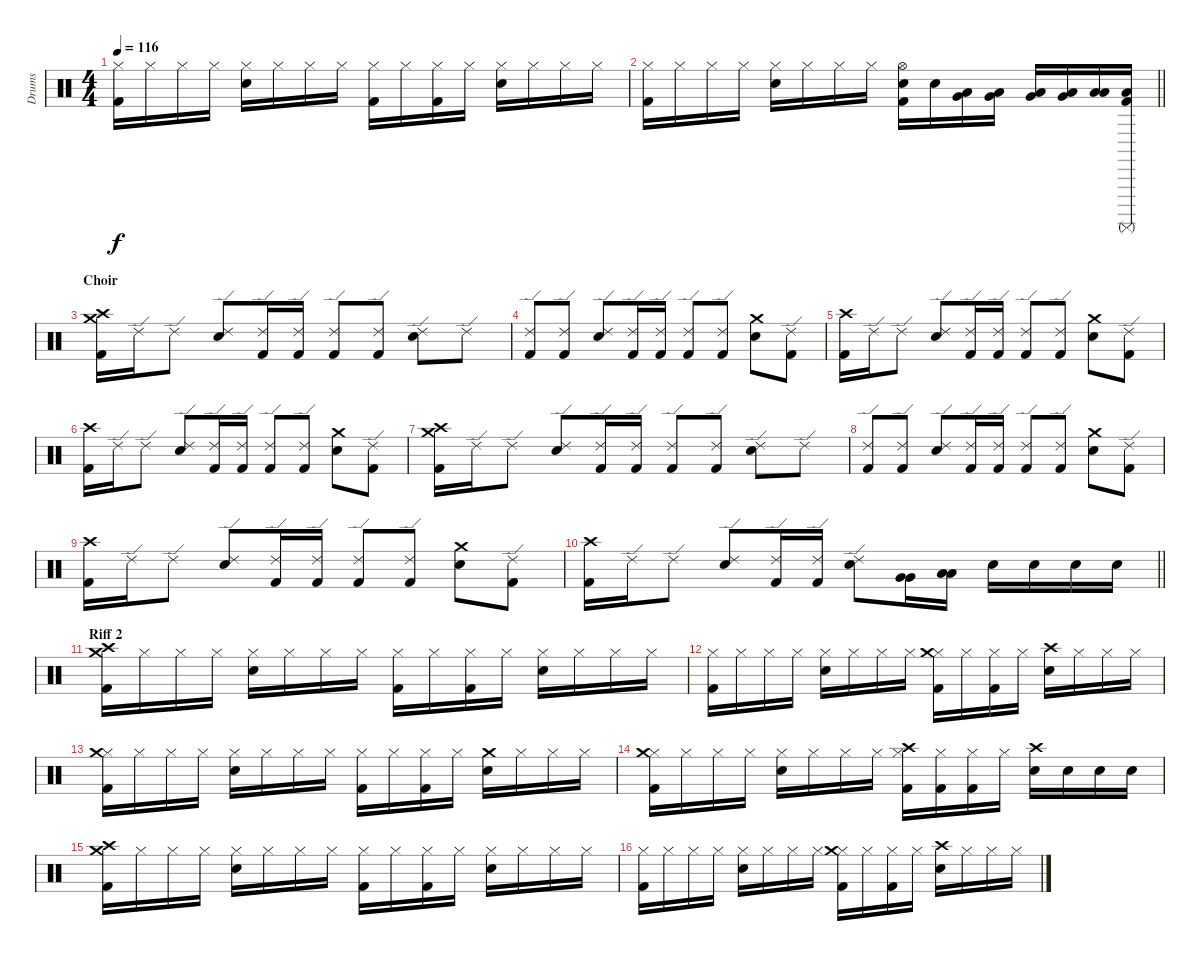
\track ("Drums" "Drums") {instrument percussion}
\staff {score}
\articulation defaults
\ts (4 4)
\tempo 116
\clef neutral
\ks c
("Hi-Hat (closed)" "Kick (hit) 2").16{dy f} "Hi-Hat (closed)".16 "Hi-Hat (closed)".16 "Hi-Hat (closed)".16 ("Hi-Hat (closed)" "Snare (hit) 2").16 "Hi-Hat (closed)".16 "Hi-Hat (closed)".16 "Hi-Hat (closed)".16 ("Hi-Hat (closed)" "Kick (hit) 2").16 "Hi-Hat (closed)".16 ("Hi-Hat (closed)" "Kick (hit) 2").16 "Hi-Hat (closed)".16 ("Hi-Hat (closed)" "Snare (hit) 2").16 "Hi-Hat (closed)".16 "Hi-Hat (closed)".16 "Hi-Hat (closed)".16 |
\barLineRight lightlight
("Hi-Hat (closed)" "Kick (hit) 2").16 "Hi-Hat (closed)".16 "Hi-Hat (closed)".16 "Hi-Hat (closed)".16 ("Hi-Hat (closed)" "Snare (hit) 2").16 "Hi-Hat (closed)".16 "Hi-Hat (closed)".16 "Hi-Hat (closed)".16 ("Hi-Hat (open)" "Kick (hit) 2" "Snare (hit) 2").16 "Snare (hit) 2".16 ("Very Low Tom (hit)" "Low Floor Tom (hit)").16 ("Very Low Tom (hit)" "Low Floor Tom (hit)").16 ("Low Tom (hit)" "Very Low Tom (hit)").16 ("Low Tom (hit)" "Very Low Tom (hit)").16 ("Low Tom (hit)" "Low Tom (hit)").16 ("Kick (hit) 2" "Low Tom (hit)" "Surdo (mute)").16 |
\section ("" "Choir")
("Kick (hit) 2" "Crash medium (hit)" "Crash high (hit)").16 "Ride (edge) 2".16 "Ride (edge) 2".8 ("Ride (edge) 2" "Snare (hit) 2").8 ("Ride (edge) 2" "Kick (hit) 2").16 ("Ride (edge) 2" "Kick (hit) 2").16 ("Ride (edge) 2" "Kick (hit) 2").8 ("Ride (edge) 2" "Kick (hit) 2").8 ("Ride (edge) 2" "Snare (hit) 2").8 "Ride (edge) 2".8 |
("Ride (edge) 2" "Kick (hit) 2").8 ("Ride (edge) 2" "Kick (hit) 2").8 ("Ride (edge) 2" "Snare (hit) 2").8 ("Ride (edge) 2" "Kick (hit) 2").16 ("Ride (edge) 2" "Kick (hit) 2").16 ("Ride (edge) 2" "Kick (hit) 2").8 ("Ride (edge) 2" "Kick (hit) 2").8 ("Snare (hit) 2" "Crash medium (hit)").8 ("Ride (edge) 2" "Kick (hit) 2").8 |
("Kick (hit) 2" "Crash high (hit)").16 "Ride (edge) 2".16 "Ride (edge) 2".8 ("Ride (edge) 2" "Snare (hit) 2").8 ("Ride (edge) 2" "Kick (hit) 2").16 ("Ride (edge) 2" "Kick (hit) 2").16 ("Ride (edge) 2" "Kick (hit) 2").8 ("Ride (edge) 2" "Kick (hit) 2").8 ("Snare (hit) 2" "Crash medium (hit)").8 ("Ride (edge) 2" "Kick (hit) 2").8 |
("Kick (hit) 2" "Crash high (hit)").16 "Ride (edge) 2".16 "Ride (edge) 2".8 ("Ride (edge) 2" "Snare (hit) 2").8 ("Ride (edge) 2" "Kick (hit) 2").16 ("Ride (edge) 2" "Kick (hit) 2").16 ("Ride (edge) 2" "Kick (hit) 2").8 ("Ride (edge) 2" "Kick (hit) 2").8 ("Snare (hit) 2" "Crash medium (hit)").8 ("Ride (edge) 2" "Kick (hit) 2").8 |
("Kick (hit) 2" "Crash medium (hit)" "Crash high (hit)").16 "Ride (edge) 2".16 "Ride (edge) 2".8 ("Ride (edge) 2" "Snare (hit) 2").8 ("Ride (edge) 2" "Kick (hit) 2").16 ("Ride (edge) 2" "Kick (hit) 2").16 ("Ride (edge) 2" "Kick (hit) 2").8 ("Ride (edge) 2" "Kick (hit) 2").8 ("Ride (edge) 2" "Snare (hit) 2").8 "Ride (edge) 2".8 |
("Ride (edge) 2" "Kick (hit) 2").8 ("Ride (edge) 2" "Kick (hit) 2").8 ("Ride (edge) 2" "Snare (hit) 2").8 ("Ride (edge) 2" "Kick (hit) 2").16 ("Ride (edge) 2" "Kick (hit) 2").16 ("Ride (edge) 2" "Kick (hit) 2").8 ("Ride (edge) 2" "Kick (hit) 2").8 ("Snare (hit) 2" "Crash medium (hit)").8 ("Ride (edge) 2" "Kick (hit) 2").8 |
("Kick (hit) 2" "Crash high (hit)").16 "Ride (edge) 2".16 "Ride (edge) 2".8 ("Ride (edge) 2" "Snare (hit) 2").8 ("Ride (edge) 2" "Kick (hit) 2").16 ("Ride (edge) 2" "Kick (hit) 2").16 ("Ride (edge) 2" "Kick (hit) 2").8 ("Ride (edge) 2" "Kick (hit) 2").8 ("Snare (hit) 2" "Crash medium (hit)").8 ("Ride (edge) 2" "Kick (hit) 2").8 |
\barLineRight lightlight
("Kick (hit) 2" "Crash high (hit)").16 "Ride (edge) 2".16 "Ride (edge) 2".8 ("Ride (edge) 2" "Snare (hit) 2").8 ("Ride (edge) 2" "Kick (hit) 2").16 ("Ride (edge) 2" "Kick (hit) 2").16 ("Ride (edge) 2" "Snare (hit) 2").8 ("Very Low Tom (hit)" "Very Low Tom (hit)").16 ("Low Tom (hit)" "Low Tom (hit)").16 "Snare (hit) 2".16 "Snare (hit) 2".16 "Snare (hit) 2".16 "Snare (hit) 2".16 |
\section ("" "Riff 2")
("Kick (hit) 2" "Crash medium (hit)" "Crash high (hit)").16 "Hi-Hat (closed)".16 "Hi-Hat (closed)".16 "Hi-Hat (closed)".16 ("Hi-Hat (closed)" "Snare (hit) 2").16 "Hi-Hat (closed)".16 "Hi-Hat (closed)".16 "Hi-Hat (closed)".16 ("Hi-Hat (closed)" "Kick (hit) 2").16 "Hi-Hat (closed)".16 ("Hi-Hat (closed)" "Kick (hit) 2").16 "Hi-Hat (closed)".16 ("Hi-Hat (closed)" "Snare (hit) 2").16 "Hi-Hat (closed)".16 "Hi-Hat (closed)".16 "Hi-Hat (closed)".16 |
("Hi-Hat (closed)" "Kick (hit) 2").16 "Hi-Hat (closed)".16 "Hi-Hat (closed)".16 "Hi-Hat (closed)".16 ("Hi-Hat (closed)" "Snare (hit) 2").16 "Hi-Hat (closed)".16 "Hi-Hat (closed)".16 "Hi-Hat (closed)".16 ("Hi-Hat (closed)" "Kick (hit) 2" "Crash medium (hit)").16 "Hi-Hat (closed)".16 ("Hi-Hat (closed)" "Kick (hit) 2").16 "Hi-Hat (closed)".16 ("Snare (hit) 2" "Crash high (hit)").16 "Hi-Hat (closed)".16 "Hi-Hat (closed)".16 "Hi-Hat (closed)".16 |
("Hi-Hat (closed)" "Kick (hit) 2" "Crash medium (hit)").16 "Hi-Hat (closed)".16 "Hi-Hat (closed)".16 "Hi-Hat (closed)".16 ("Hi-Hat (closed)" "Snare (hit) 2").16 "Hi-Hat (closed)".16 "Hi-Hat (closed)".16 "Hi-Hat (closed)".16 ("Hi-Hat (closed)" "Kick (hit) 2").16 "Hi-Hat (closed)".16 ("Hi-Hat (closed)" "Kick (hit) 2").16 "Hi-Hat (closed)".16 ("Snare (hit) 2" "Crash medium (hit)").16 "Hi-Hat (closed)".16 "Hi-Hat (closed)".16 "Hi-Hat (closed)".16 |
("Hi-Hat (closed)" "Kick (hit) 2" "Crash medium (hit)").16 "Hi-Hat (closed)".16 "Hi-Hat (closed)".16 "Hi-Hat (closed)".16 ("Hi-Hat (closed)" "Snare (hit) 2").16 "Hi-Hat (closed)".16 "Hi-Hat (closed)".16 "Hi-Hat (closed)".16 ("Hi-Hat (closed)" "Kick (hit) 2" "Crash high (hit)").16 ("Hi-Hat (closed)" "Kick (hit) 2").16 ("Hi-Hat (closed)" "Kick (hit) 2").16 "Hi-Hat (closed)".16 ("Snare (hit) 2" "Crash high (hit)").16 "Snare (hit) 2".16 "Snare (hit) 2".16 "Snare (hit) 2".16 |
("Kick (hit) 2" "Crash medium (hit)" "Crash high (hit)").16 "Hi-Hat (closed)".16 "Hi-Hat (closed)".16 "Hi-Hat (closed)".16 ("Hi-Hat (closed)" "Snare (hit) 2").16 "Hi-Hat (closed)".16 "Hi-Hat (closed)".16 "Hi-Hat (closed)".16 ("Hi-Hat (closed)" "Kick (hit) 2").16 "Hi-Hat (closed)".16 ("Hi-Hat (closed)" "Kick (hit) 2").16 "Hi-Hat (closed)".16 ("Hi-Hat (closed)" "Snare (hit) 2").16 "Hi-Hat (closed)".16 "Hi-Hat (closed)".16 "Hi-Hat (closed)".16 |
("Hi-Hat (closed)" "Kick (hit) 2").16 "Hi-Hat (closed)".16 "Hi-Hat (closed)".16 "Hi-Hat (closed)".16 ("Hi-Hat (closed)" "Snare (hit) 2").16 "Hi-Hat (closed)".16 "Hi-Hat (closed)".16 "Hi-Hat (closed)".16 ("Hi-Hat (closed)" "Kick (hit) 2" "Crash medium (hit)").16 "Hi-Hat (closed)".16 ("Hi-Hat (closed)" "Kick (hit) 2").16 "Hi-Hat (closed)".16 ("Snare (hit) 2" "Crash high (hit)").16 "Hi-Hat (closed)".16 "Hi-Hat (closed)".16 "Hi-Hat (closed)".16
